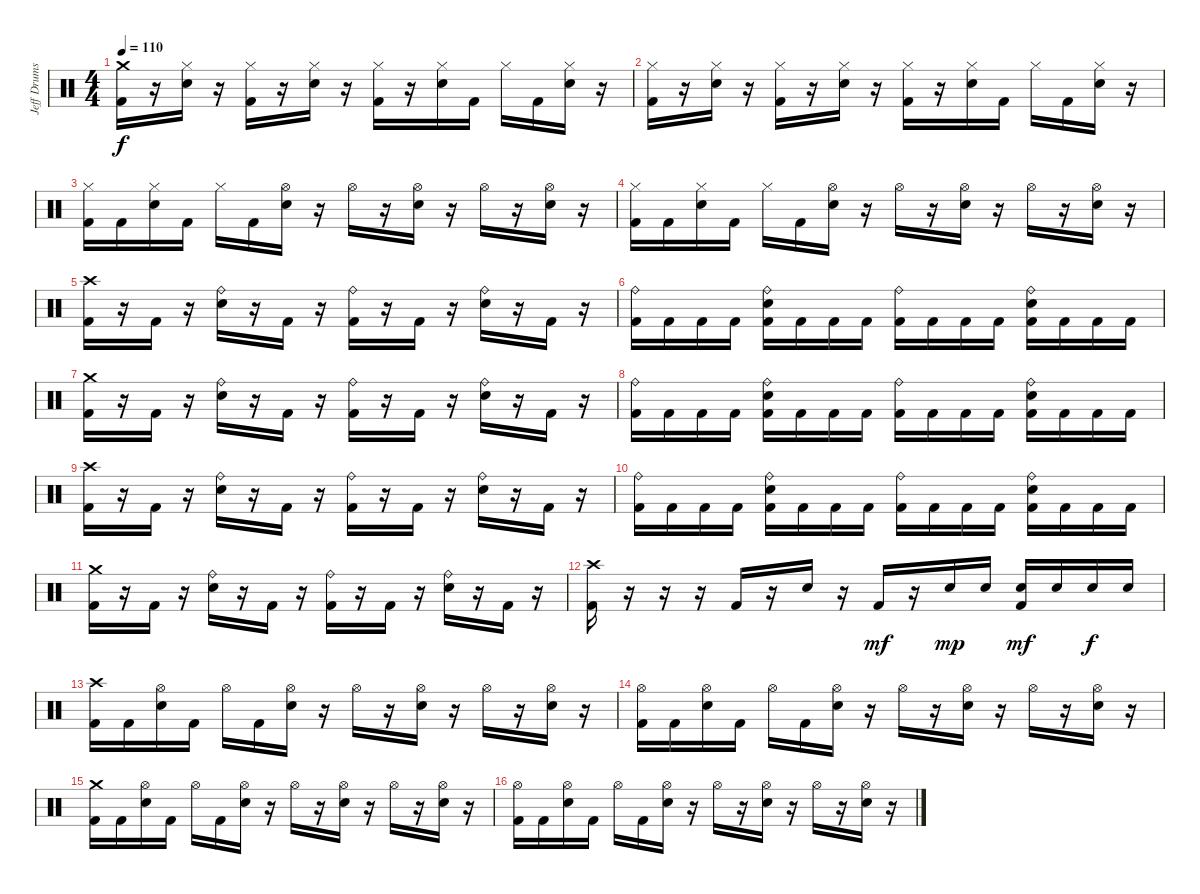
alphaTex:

\track ("Jeff Drums" "Jeff Drums") {instrument percussion}
\staff {score}
\articulation defaults
\ts (4 4)
\tempo 110
\clef neutral
\ks c
("Crash medium (hit)" "Kick (hit) 2").16{dy f} r.16 ("Hi-Hat (closed)" "Electric Snare (hit)").16 r.16 ("Hi-Hat (closed)" "Kick (hit) 2").16 r.16 ("Hi-Hat (closed)" "Electric Snare (hit)").16 r.16 ("Hi-Hat (closed)" "Kick (hit) 2").16 r.16 ("Hi-Hat (closed)" "Electric Snare (hit)").16 "Kick (hit) 2".16 "Hi-Hat (closed)".16 "Kick (hit) 2".16 ("Hi-Hat (closed)" "Electric Snare (hit)").16 r.16 |
("Hi-Hat (closed)" "Kick (hit) 2").16 r.16 ("Hi-Hat (closed)" "Electric Snare (hit)").16 r.16 ("Hi-Hat (closed)" "Kick (hit) 2").16 r.16 ("Hi-Hat (closed)" "Electric Snare (hit)").16 r.16 ("Hi-Hat (closed)" "Kick (hit) 2").16 r.16 ("Hi-Hat (closed)" "Electric Snare (hit)").16 "Kick (hit) 2".16 "Hi-Hat (closed)".16 "Kick (hit) 2".16 ("Hi-Hat (closed)" "Electric Snare (hit)").16 r.16 |
("Hi-Hat (closed)" "Kick (hit) 2").16 "Kick (hit) 2".16 ("Hi-Hat (closed)" "Electric Snare (hit)").16 "Kick (hit) 2".16 "Hi-Hat (closed)".16 "Kick (hit) 2".16 ("Hi-Hat (open)" "Electric Snare (hit)").16 r.16 "Hi-Hat (open)".16 r.16 ("Hi-Hat (open)" "Electric Snare (hit)").16 r.16 "Hi-Hat (open)".16 r.16 ("Hi-Hat (open)" "Electric Snare (hit)").16 r.16 |
("Hi-Hat (closed)" "Kick (hit) 2").16 "Kick (hit) 2".16 ("Hi-Hat (closed)" "Electric Snare (hit)").16 "Kick (hit) 2".16 "Hi-Hat (closed)".16 "Kick (hit) 2".16 ("Hi-Hat (open)" "Electric Snare (hit)").16 r.16 "Hi-Hat (open)".16 r.16 ("Hi-Hat (open)" "Electric Snare (hit)").16 r.16 "Hi-Hat (open)".16 r.16 ("Hi-Hat (open)" "Electric Snare (hit)").16 r.16 |
("Crash high (hit)" "Kick (hit) 2").16 r.16 "Kick (hit) 2".16 r.16 ("Ride (bell)" "Electric Snare (hit)").16 r.16 "Kick (hit) 2".16 r.16 ("Ride (bell)" "Kick (hit) 2").16 r.16 "Kick (hit) 2".16 r.16 ("Ride (bell)" "Electric Snare (hit)").16 r.16 "Kick (hit) 2".16 r.16 |
("Ride (bell)" "Kick (hit) 2").16 "Kick (hit) 2".16 "Kick (hit) 2".16 "Kick (hit) 2".16 ("Ride (bell)" "Electric Snare (hit)" "Kick (hit) 2").16 "Kick (hit) 2".16 "Kick (hit) 2".16 "Kick (hit) 2".16 ("Ride (bell)" "Kick (hit) 2").16 "Kick (hit) 2".16 "Kick (hit) 2".16 "Kick (hit) 2".16 ("Ride (bell)" "Electric Snare (hit)" "Kick (hit) 2").16 "Kick (hit) 2".16 "Kick (hit) 2".16 "Kick (hit) 2".16 |
("Crash medium (hit)" "Kick (hit) 2").16 r.16 "Kick (hit) 2".16 r.16 ("Ride (bell)" "Electric Snare (hit)").16 r.16 "Kick (hit) 2".16 r.16 ("Ride (bell)" "Kick (hit) 2").16 r.16 "Kick (hit) 2".16 r.16 ("Ride (bell)" "Electric Snare (hit)").16 r.16 "Kick (hit) 2".16 r.16 |
("Ride (bell)" "Kick (hit) 2").16 "Kick (hit) 2".16 "Kick (hit) 2".16 "Kick (hit) 2".16 ("Ride (bell)" "Electric Snare (hit)" "Kick (hit) 2").16 "Kick (hit) 2".16 "Kick (hit) 2".16 "Kick (hit) 2".16 ("Ride (bell)" "Kick (hit) 2").16 "Kick (hit) 2".16 "Kick (hit) 2".16 "Kick (hit) 2".16 ("Ride (bell)" "Electric Snare (hit)" "Kick (hit) 2").16 "Kick (hit) 2".16 "Kick (hit) 2".16 "Kick (hit) 2".16 |
("Crash high (hit)" "Kick (hit) 2").16 r.16 "Kick (hit) 2".16 r.16 ("Ride (bell)" "Electric Snare (hit)").16 r.16 "Kick (hit) 2".16 r.16 ("Ride (bell)" "Kick (hit) 2").16 r.16 "Kick (hit) 2".16 r.16 ("Ride (bell)" "Electric Snare (hit)").16 r.16 "Kick (hit) 2".16 r.16 |
("Ride (bell)" "Kick (hit) 2").16 "Kick (hit) 2".16 "Kick (hit) 2".16 "Kick (hit) 2".16 ("Ride (bell)" "Electric Snare (hit)" "Kick (hit) 2").16 "Kick (hit) 2".16 "Kick (hit) 2".16 "Kick (hit) 2".16 ("Ride (bell)" "Kick (hit) 2").16 "Kick (hit) 2".16 "Kick (hit) 2".16 "Kick (hit) 2".16 ("Ride (bell)" "Electric Snare (hit)" "Kick (hit) 2").16 "Kick (hit) 2".16 "Kick (hit) 2".16 "Kick (hit) 2".16 |
("Crash medium (hit)" "Kick (hit) 2").16 r.16 "Kick (hit) 2".16 r.16 ("Ride (bell)" "Electric Snare (hit)").16 r.16 "Kick (hit) 2".16 r.16 ("Ride (bell)" "Kick (hit) 2").16 r.16 "Kick (hit) 2".16 r.16 ("Ride (bell)" "Electric Snare (hit)").16 r.16 "Kick (hit) 2".16 r.16 |
("Crash high (hit)" "Kick (hit) 2").16 r.16 r.16 r.16 "Kick (hit) 2".16 r.16 "Electric Snare (hit)".16 r.16 "Kick (hit) 2".16{dy mf} r.16 "Electric Snare (hit)".16{dy mp} "Electric Snare (hit)".16 ("Electric Snare (hit)" "Kick (hit) 2").16{dy mf} "Electric Snare (hit)".16 "Electric Snare (hit)".16{dy f} "Electric Snare (hit)".16 |
("Crash high (hit)" "Kick (hit) 2").16 "Kick (hit) 2".16 ("Hi-Hat (open)" "Electric Snare (hit)").16 "Kick (hit) 2".16 "Hi-Hat (open)".16 "Kick (hit) 2".16 ("Hi-Hat (open)" "Electric Snare (hit)").16 r.16 "Hi-Hat (open)".16 r.16 ("Hi-Hat (open)" "Electric Snare (hit)").16 r.16 "Hi-Hat (open)".16 r.16 ("Hi-Hat (open)" "Electric Snare (hit)").16 r.16 |
("Hi-Hat (open)" "Kick (hit) 2").16 "Kick (hit) 2".16 ("Hi-Hat (open)" "Electric Snare (hit)").16 "Kick (hit) 2".16 "Hi-Hat (open)".16 "Kick (hit) 2".16 ("Hi-Hat (open)" "Electric Snare (hit)").16 r.16 "Hi-Hat (open)".16 r.16 ("Hi-Hat (open)" "Electric Snare (hit)").16 r.16 "Hi-Hat (open)".16 r.16 ("Hi-Hat (open)" "Electric Snare (hit)").16 r.16 |
("Crash medium (hit)" "Kick (hit) 2").16 "Kick (hit) 2".16 ("Hi-Hat (open)" "Electric Snare (hit)").16 "Kick (hit) 2".16 "Hi-Hat (open)".16 "Kick (hit) 2".16 ("Hi-Hat (open)" "Electric Snare (hit)").16 r.16 "Hi-Hat (open)".16 r.16 ("Hi-Hat (open)" "Electric Snare (hit)").16 r.16 "Hi-Hat (open)".16 r.16 ("Hi-Hat (open)" "Electric Snare (hit)").16 r.16 |
("Hi-Hat (open)" "Kick (hit) 2").16 "Kick (hit) 2".16 ("Hi-Hat (open)" "Electric Snare (hit)").16 "Kick (hit) 2".16 "Hi-Hat (open)".16 "Kick (hit) 2".16 ("Hi-Hat (open)" "Electric Snare (hit)").16 r.16 "Hi-Hat (open)".16 r.16 ("Hi-Hat (open)" "Electric Snare (hit)").16 r.16 "Hi-Hat (open)".16 r.16 ("Hi-Hat (open)" "Electric Snare (hit)").16 r.16
